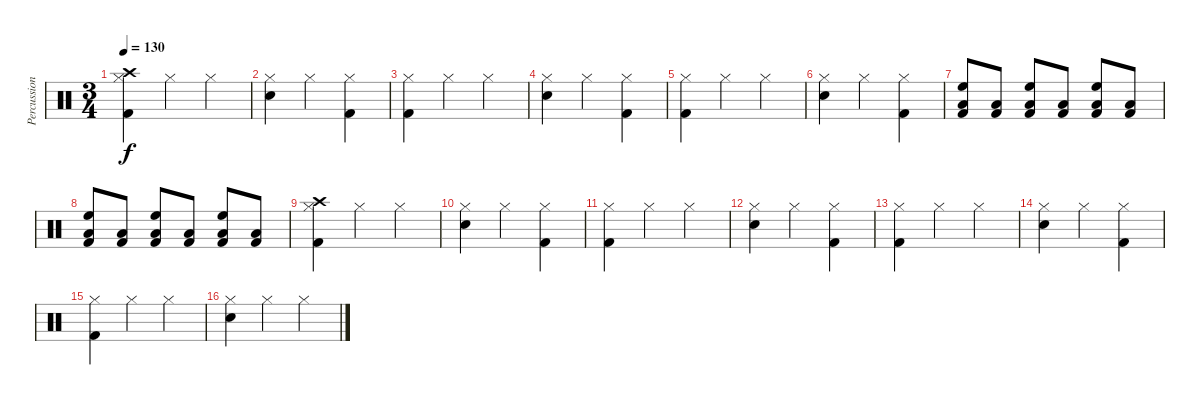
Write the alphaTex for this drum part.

\track ("Percussion" "Percussion") {instrument percussion}
\staff {score}
\articulation defaults
\ts (3 4)
\tempo 130
\clef neutral
\ks c
("Crash high (hit)" "Hi-Hat (closed)" "Kick (hit) 2").4{dy f} "Hi-Hat (closed)".4 "Hi-Hat (closed)".4 |
("Hi-Hat (closed)" "Electric Snare (hit)").4 "Hi-Hat (closed)".4 ("Hi-Hat (closed)" "Kick (hit) 2").4 |
("Hi-Hat (closed)" "Kick (hit) 2").4 "Hi-Hat (closed)".4 "Hi-Hat (closed)".4 |
("Hi-Hat (closed)" "Electric Snare (hit)").4 "Hi-Hat (closed)".4 ("Hi-Hat (closed)" "Kick (hit) 2").4 |
("Hi-Hat (closed)" "Kick (hit) 2").4 "Hi-Hat (closed)".4 "Hi-Hat (closed)".4 |
("Hi-Hat (closed)" "Electric Snare (hit)").4 "Hi-Hat (closed)".4 ("Hi-Hat (closed)" "Kick (hit) 2").4 |
("High Floor Tom (hit)" "Low Tom (hit)" "Kick (hit) 2").8 ("Low Tom (hit)" "Kick (hit) 2").8 ("High Floor Tom (hit)" "Low Tom (hit)" "Kick (hit) 2").8 ("Low Tom (hit)" "Kick (hit) 2").8 ("High Floor Tom (hit)" "Low Tom (hit)" "Kick (hit) 2").8 ("Low Tom (hit)" "Kick (hit) 2").8 |
("High Floor Tom (hit)" "Low Tom (hit)" "Kick (hit) 2").8 ("Low Tom (hit)" "Kick (hit) 2").8 ("High Floor Tom (hit)" "Low Tom (hit)" "Kick (hit) 2").8 ("Low Tom (hit)" "Kick (hit) 2").8 ("High Floor Tom (hit)" "Low Tom (hit)" "Kick (hit) 2").8 ("Low Tom (hit)" "Kick (hit) 2").8 |
("Crash high (hit)" "Hi-Hat (closed)" "Kick (hit) 2").4 "Hi-Hat (closed)".4 "Hi-Hat (closed)".4 |
("Hi-Hat (closed)" "Electric Snare (hit)").4 "Hi-Hat (closed)".4 ("Hi-Hat (closed)" "Kick (hit) 2").4 |
("Hi-Hat (closed)" "Kick (hit) 2").4 "Hi-Hat (closed)".4 "Hi-Hat (closed)".4 |
("Hi-Hat (closed)" "Electric Snare (hit)").4 "Hi-Hat (closed)".4 ("Hi-Hat (closed)" "Kick (hit) 2").4 |
("Hi-Hat (closed)" "Kick (hit) 2").4 "Hi-Hat (closed)".4 "Hi-Hat (closed)".4 |
("Hi-Hat (closed)" "Electric Snare (hit)").4 "Hi-Hat (closed)".4 ("Hi-Hat (closed)" "Kick (hit) 2").4 |
("Hi-Hat (closed)" "Kick (hit) 2").4 "Hi-Hat (closed)".4 "Hi-Hat (closed)".4 |
("Hi-Hat (closed)" "Electric Snare (hit)").4 "Hi-Hat (closed)".4 "Hi-Hat (closed)".4
